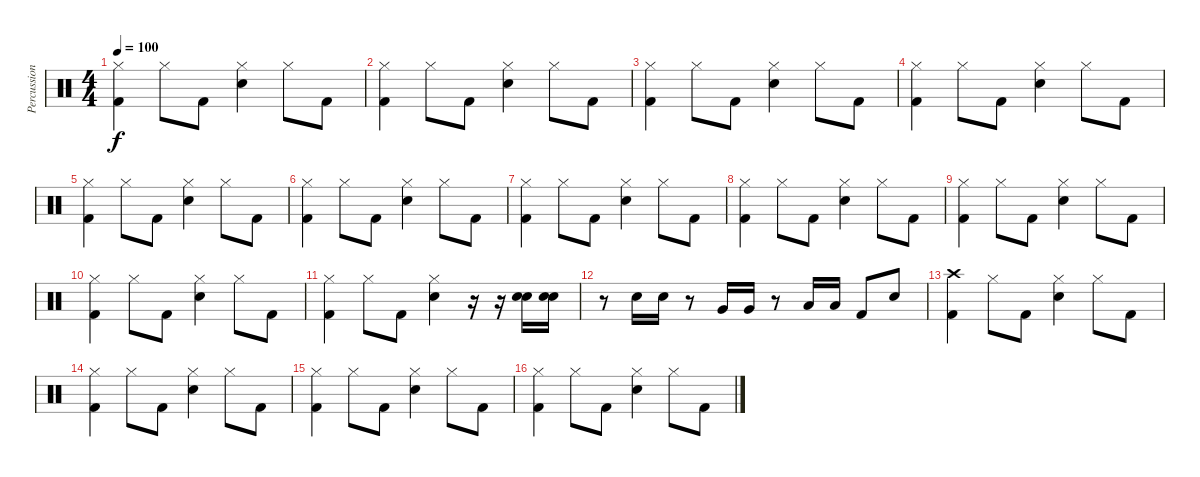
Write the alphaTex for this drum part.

\track ("Percussion" "Percussion") {instrument percussion}
\staff {score}
\articulation defaults
\ts (4 4)
\tempo 100
\clef neutral
\ks c
("Hi-Hat (closed)" "Kick (hit) 2").4{dy f} "Hi-Hat (closed)".8 "Kick (hit) 2".8 ("Hi-Hat (closed)" "Snare (hit) 2").4 "Hi-Hat (closed)".8 "Kick (hit) 2".8 |
("Hi-Hat (closed)" "Kick (hit) 2").4 "Hi-Hat (closed)".8 "Kick (hit) 2".8 ("Hi-Hat (closed)" "Snare (hit) 2").4 "Hi-Hat (closed)".8 "Kick (hit) 2".8 |
("Hi-Hat (closed)" "Kick (hit) 2").4 "Hi-Hat (closed)".8 "Kick (hit) 2".8 ("Hi-Hat (closed)" "Snare (hit) 2").4 "Hi-Hat (closed)".8 "Kick (hit) 2".8 |
("Hi-Hat (closed)" "Kick (hit) 2").4 "Hi-Hat (closed)".8 "Kick (hit) 2".8 ("Hi-Hat (closed)" "Snare (hit) 2").4 "Hi-Hat (closed)".8 "Kick (hit) 2".8 |
("Hi-Hat (closed)" "Kick (hit) 2").4 "Hi-Hat (closed)".8 "Kick (hit) 2".8 ("Hi-Hat (closed)" "Snare (hit) 2").4 "Hi-Hat (closed)".8 "Kick (hit) 2".8 |
("Hi-Hat (closed)" "Kick (hit) 2").4 "Hi-Hat (closed)".8 "Kick (hit) 2".8 ("Hi-Hat (closed)" "Snare (hit) 2").4 "Hi-Hat (closed)".8 "Kick (hit) 2".8 |
("Hi-Hat (closed)" "Kick (hit) 2").4 "Hi-Hat (closed)".8 "Kick (hit) 2".8 ("Hi-Hat (closed)" "Snare (hit) 2").4 "Hi-Hat (closed)".8 "Kick (hit) 2".8 |
("Hi-Hat (closed)" "Kick (hit) 2").4 "Hi-Hat (closed)".8 "Kick (hit) 2".8 ("Hi-Hat (closed)" "Snare (hit) 2").4 "Hi-Hat (closed)".8 "Kick (hit) 2".8 |
("Hi-Hat (closed)" "Kick (hit) 2").4 "Hi-Hat (closed)".8 "Kick (hit) 2".8 ("Hi-Hat (closed)" "Snare (hit) 2").4 "Hi-Hat (closed)".8 "Kick (hit) 2".8 |
("Hi-Hat (closed)" "Kick (hit) 2").4 "Hi-Hat (closed)".8 "Kick (hit) 2".8 ("Hi-Hat (closed)" "Snare (hit) 2").4 "Hi-Hat (closed)".8 "Kick (hit) 2".8 |
("Hi-Hat (closed)" "Kick (hit) 2").4 "Hi-Hat (closed)".8 "Kick (hit) 2".8 ("Hi-Hat (closed)" "Snare (hit) 2").4 r.16 r.16 ("Electric Snare (hit)" "Electric Snare (hit)").16 ("Electric Snare (hit)" "Electric Snare (hit)").16 |
r.8 "Snare (hit) 2".16 "Snare (hit) 2".16 r.8 "Very Low Tom (hit)".16 "Very Low Tom (hit)".16 r.8 "Low Floor Tom (hit)".16 "Low Floor Tom (hit)".16 "Kick (hit) 2".8 "Snare (hit) 2".8 |
("Crash high (hit)" "Kick (hit) 2").4 "Hi-Hat (closed)".8 "Kick (hit) 2".8 ("Hi-Hat (closed)" "Snare (hit) 2").4 "Hi-Hat (closed)".8 "Kick (hit) 2".8 |
("Hi-Hat (closed)" "Kick (hit) 2").4 "Hi-Hat (closed)".8 "Kick (hit) 2".8 ("Hi-Hat (closed)" "Snare (hit) 2").4 "Hi-Hat (closed)".8 "Kick (hit) 2".8 |
("Hi-Hat (closed)" "Kick (hit) 2").4 "Hi-Hat (closed)".8 "Kick (hit) 2".8 ("Hi-Hat (closed)" "Snare (hit) 2").4 "Hi-Hat (closed)".8 "Kick (hit) 2".8 |
("Hi-Hat (closed)" "Kick (hit) 2").4 "Hi-Hat (closed)".8 "Kick (hit) 2".8 ("Hi-Hat (closed)" "Snare (hit) 2").4 "Hi-Hat (closed)".8 "Kick (hit) 2".8
